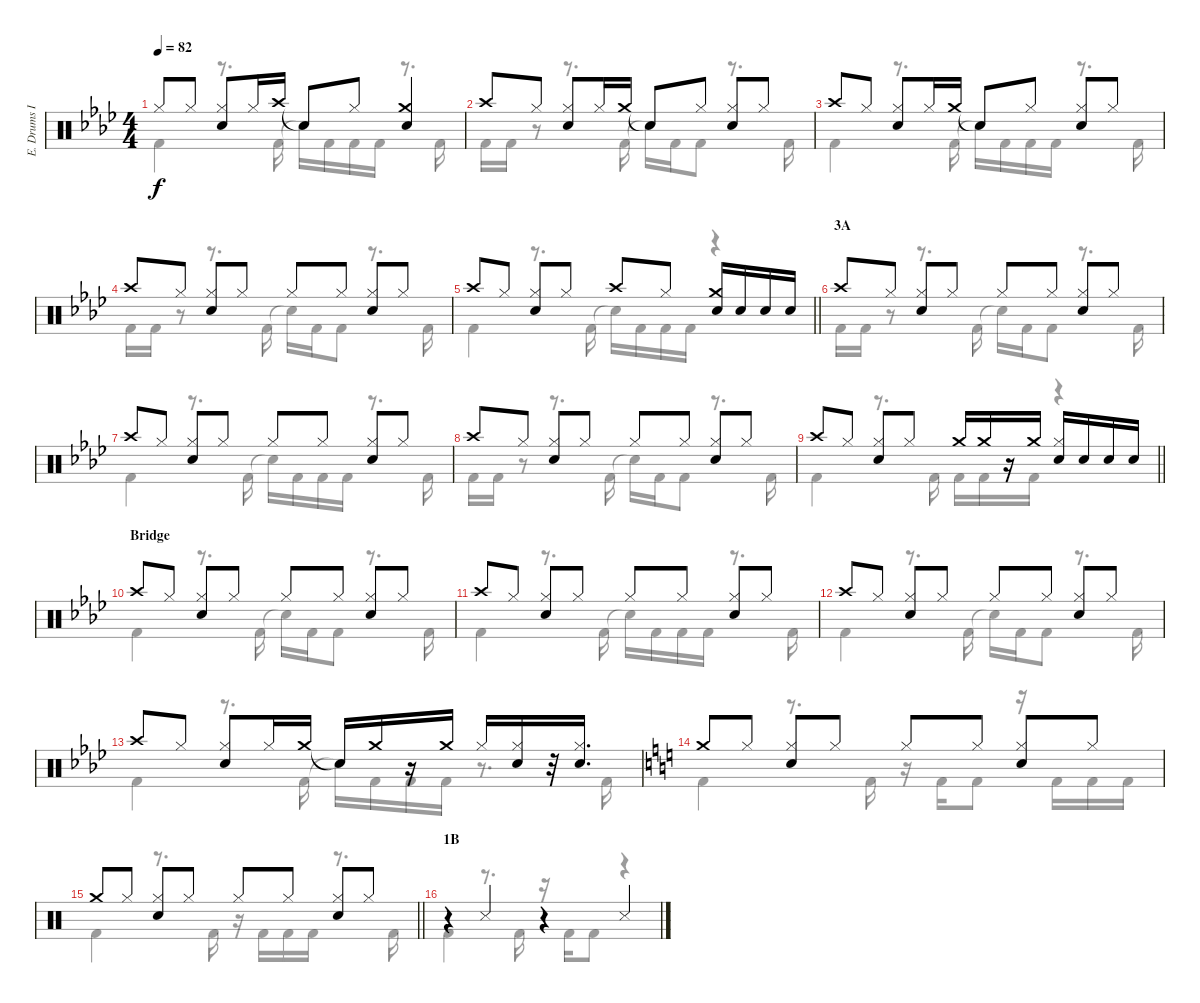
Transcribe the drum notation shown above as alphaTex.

\track ("E. Drums I" "E. Drums I") {instrument percussion}
\staff {score}
\articulation defaults
\voice
\ts (4 4)
\tempo 82
\clef neutral
\ks ab "Hi-Hat (closed)".8{dy f} "Hi-Hat (closed)".8
("Hi-Hat (closed)" "Electric Snare (hit)").8 "Hi-Hat (closed)".16 "Crash high (hit)".16 "Snare (hit)"{t}.8 "Hi-Hat (closed)".8 ("Crash medium (hit)" "Electric Snare (hit)").4 |
"Crash high (hit)".8 "Hi-Hat (closed)".8 ("Hi-Hat (closed)" "Electric Snare (hit)").8 "Hi-Hat (closed)".16 "Crash medium (hit)".16 "Snare (hit)"{t}.8 "Hi-Hat (closed)".8 ("Hi-Hat (closed)" "Electric Snare (hit)").8 "Hi-Hat (closed)".8 |
"Crash high (hit)".8 "Hi-Hat (closed)".8 ("Hi-Hat (closed)" "Electric Snare (hit)").8 "Hi-Hat (closed)".16 "Crash medium (hit)".16 "Snare (hit)"{t}.8 "Hi-Hat (closed)".8 ("Hi-Hat (closed)" "Electric Snare (hit)").8 "Hi-Hat (closed)".8 |
"Crash high (hit)".8 "Hi-Hat (closed)".8 ("Hi-Hat (closed)" "Electric Snare (hit)").8 "Hi-Hat (closed)".8 "Hi-Hat (closed)".8 "Hi-Hat (closed)".8 ("Hi-Hat (closed)" "Electric Snare (hit)").8 "Hi-Hat (closed)".8 |
\barLineRight lightlight "Crash high (hit)".8 "Hi-Hat (closed)".8
("Hi-Hat (closed)" "Electric Snare (hit)").8 "Hi-Hat (closed)".8 "Crash high (hit)".8 "Hi-Hat (closed)".8 ("Crash medium (hit)" "Electric Snare (hit)").16 "Electric Snare (hit)".16 "Electric Snare (hit)".16 "Electric Snare (hit)".16 |
\section ("" "3A")
"Crash high (hit)".8 "Hi-Hat (closed)".8 ("Hi-Hat (closed)" "Electric Snare (hit)").8 "Hi-Hat (closed)".8 "Hi-Hat (closed)".8 "Hi-Hat (closed)".8 ("Hi-Hat (closed)" "Electric Snare (hit)").8 "Hi-Hat (closed)".8 |
"Crash high (hit)".8 "Hi-Hat (closed)".8 ("Hi-Hat (closed)" "Electric Snare (hit)").8 "Hi-Hat (closed)".8 "Hi-Hat (closed)".8 "Hi-Hat (closed)".8 ("Hi-Hat (closed)" "Electric Snare (hit)").8 "Hi-Hat (closed)".8 |
"Crash high (hit)".8 "Hi-Hat (closed)".8 ("Hi-Hat (closed)" "Electric Snare (hit)").8 "Hi-Hat (closed)".8 "Hi-Hat (closed)".8 "Hi-Hat (closed)".8 ("Hi-Hat (closed)" "Electric Snare (hit)").8 "Hi-Hat (closed)".8 |
\barLineRight lightlight "Crash high (hit)".8 "Hi-Hat (closed)".8
("Hi-Hat (closed)" "Electric Snare (hit)").8 "Hi-Hat (closed)".8 "Crash medium (hit)".16 "Crash medium (hit)".16 r.16 "Crash medium (hit)".16 ("Hi-Hat (closed)" "Electric Snare (hit)").16 "Electric Snare (hit)".16 "Electric Snare (hit)".16 "Electric Snare (hit)".16 |
\section ("" "Bridge")
"Crash high (hit)".8 "Hi-Hat (closed)".8 ("Hi-Hat (closed)" "Electric Snare (hit)").8 "Hi-Hat (closed)".8 "Hi-Hat (closed)".8 "Hi-Hat (closed)".8 ("Hi-Hat (closed)" "Electric Snare (hit)").8 "Hi-Hat (closed)".8 |
"Crash high (hit)".8 "Hi-Hat (closed)".8 ("Hi-Hat (closed)" "Electric Snare (hit)").8 "Hi-Hat (closed)".8 "Hi-Hat (closed)".8 "Hi-Hat (closed)".8 ("Hi-Hat (closed)" "Electric Snare (hit)").8 "Hi-Hat (closed)".8 |
"Crash high (hit)".8 "Hi-Hat (closed)".8 ("Hi-Hat (closed)" "Electric Snare (hit)").8 "Hi-Hat (closed)".8 "Hi-Hat (closed)".8 "Hi-Hat (closed)".8 ("Hi-Hat (closed)" "Electric Snare (hit)").8 "Hi-Hat (closed)".8 |
"Crash high (hit)".8 "Hi-Hat (closed)".8 ("Hi-Hat (closed)" "Electric Snare (hit)").8 "Hi-Hat (closed)".16 "Crash medium (hit)".16 "Snare (hit)"{t}.16 "Crash medium (hit)".16 r.16 "Crash medium (hit)".16 "Hi-Hat (closed)".16 ("Hi-Hat (closed)" "Electric Snare (hit)").16 r.32 ("Hi-Hat (closed)" "Electric Snare (hit)").16{d} |
\ks c "Crash medium (hit)".8 "Hi-Hat (closed)".8
("Hi-Hat (closed)" "Electric Snare (hit)").8 "Hi-Hat (closed)".8 "Hi-Hat (closed)".8 "Hi-Hat (closed)".8 ("Hi-Hat (closed)" "Electric Snare (hit)").8 "Hi-Hat (closed)".8 |
\barLineRight lightlight "Crash medium (hit)".8 "Hi-Hat (closed)".8
("Hi-Hat (closed)" "Electric Snare (hit)").8 "Hi-Hat (closed)".8 "Hi-Hat (closed)".8 "Hi-Hat (closed)".8 ("Hi-Hat (closed)" "Electric Snare (hit)").8 "Hi-Hat (closed)".8 |
\section ("" "1B")
r.4 "Snare (side stick) 3".4 r.4 "Snare (side stick) 3".4
\voice
\clef neutral
\ottava regular
\simile none
\ks ab "Kick (hit) 2".4{dy f}
r.8{d} "Kick (hit) 2".16 "Snare (hit)"{t}.16 "Kick (hit) 2".16 "Kick (hit) 2".16 "Kick (hit) 2".16 r.8{d} "Kick (hit) 2".16 |
"Kick (hit) 2".16 "Kick (hit) 2".16 r.8 r.8{d} "Kick (hit) 2".16 "Snare (hit)"{t}.16 "Kick (hit) 2".16 "Kick (hit) 2".8 r.8{d} "Kick (hit) 2".16 |
"Kick (hit) 2".4 r.8{d} "Kick (hit) 2".16 "Snare (hit)"{t}.16 "Kick (hit) 2".16 "Kick (hit) 2".16 "Kick (hit) 2".16 r.8{d} "Kick (hit) 2".16 |
"Kick (hit) 2".16 "Kick (hit) 2".16 r.8 r.8{d} "Kick (hit) 2".16 "Snare (hit)"{t}.16 "Kick (hit) 2".16 "Kick (hit) 2".8 r.8{d} "Kick (hit) 2".16 |
\barLineRight lightlight "Kick (hit) 2".4
r.8{d} "Kick (hit) 2".16 "Snare (hit)"{t}.16 "Kick (hit) 2".16 "Kick (hit) 2".16 "Kick (hit) 2".16 r.4 |
"Kick (hit) 2".16 "Kick (hit) 2".16 r.8 r.8{d} "Kick (hit) 2".16 "Snare (hit)"{t}.16 "Kick (hit) 2".16 "Kick (hit) 2".8 r.8{d} "Kick (hit) 2".16 |
"Kick (hit) 2".4 r.8{d} "Kick (hit) 2".16 "Snare (hit)"{t}.16 "Kick (hit) 2".16 "Kick (hit) 2".16 "Kick (hit) 2".16 r.8{d} "Kick (hit) 2".16 |
"Kick (hit) 2".16 "Kick (hit) 2".16 r.8 r.8{d} "Kick (hit) 2".16 "Snare (hit)"{t}.16 "Kick (hit) 2".16 "Kick (hit) 2".8 r.8{d} "Kick (hit) 2".16 |
\barLineRight lightlight "Kick (hit) 2".4
r.8{d} "Kick (hit) 2".16 "Kick (hit) 2".16 "Kick (hit) 2".16 r.16 "Kick (hit) 2".16 r.4 |
"Kick (hit) 2".4 r.8{d} "Kick (hit) 2".16 "Snare (hit)"{t}.16 "Kick (hit) 2".16 "Kick (hit) 2".8 r.8{d} "Kick (hit) 2".16 |
"Kick (hit) 2".4 r.8{d} "Kick (hit) 2".16 "Snare (hit)"{t}.16 "Kick (hit) 2".16 "Kick (hit) 2".16 "Kick (hit) 2".16 r.8{d} "Kick (hit) 2".16 |
"Kick (hit) 2".4 r.8{d} "Kick (hit) 2".16 "Snare (hit)"{t}.16 "Kick (hit) 2".16 "Kick (hit) 2".8 r.8{d} "Kick (hit) 2".16 |
"Kick (hit) 2".4 r.8{d} "Kick (hit) 2".16 "Snare (hit)"{t}.16 "Kick (hit) 2".16 "Kick (hit) 2".16 "Kick (hit) 2".16 r.8{d} "Kick (hit) 2".16 |
\ks c "Kick (hit) 2".4
r.8{d} "Kick (hit) 2".16 r.16 "Kick (hit) 2".16 "Kick (hit) 2".8 r.16 "Kick (hit) 2".16 "Kick (hit) 2".16 "Kick (hit) 2".16 |
\barLineRight lightlight "Kick (hit) 2".4
r.8{d} "Kick (hit) 2".16 r.16 "Kick (hit) 2".16 "Kick (hit) 2".16 "Kick (hit) 2".16 r.8{d} "Kick (hit) 2".16 |
"Kick (hit) 2".4 r.8{d} "Kick (hit) 2".16 r.16 "Kick (hit) 2".16 "Kick (hit) 2".8 r.4
